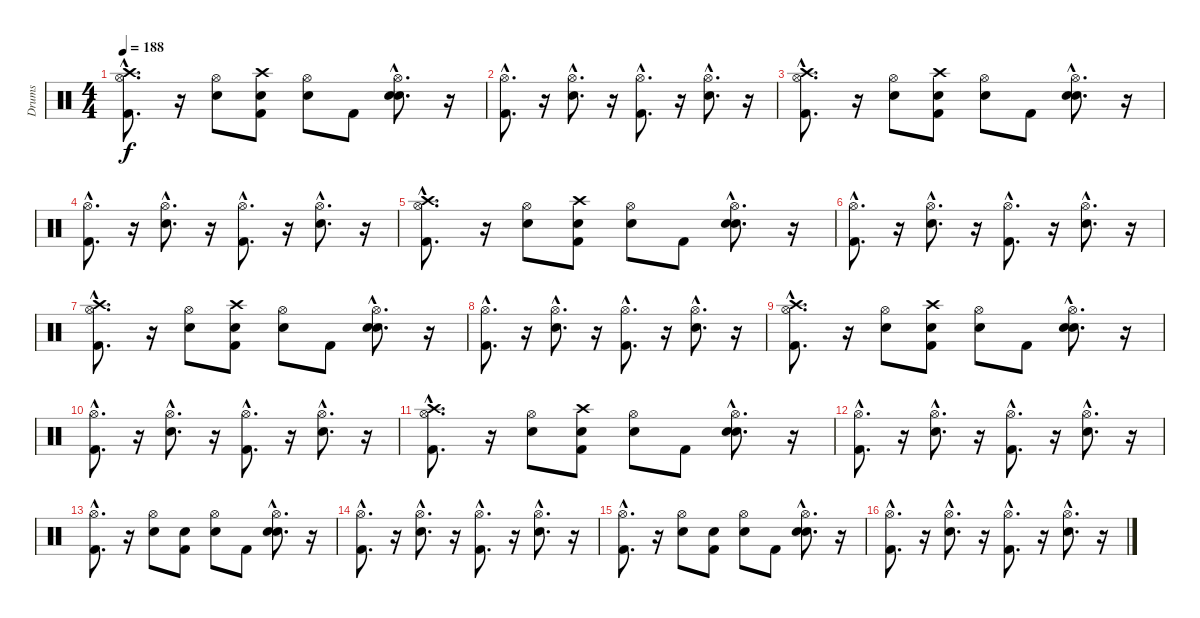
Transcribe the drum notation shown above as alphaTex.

\track ("Drums" "Drums") {instrument percussion}
\staff {score}
\articulation defaults
\ts (4 4)
\tempo 188
\clef neutral
\ks c
("Kick (hit) 2"{hac} "Hi-Hat (open)"{hac} "Crash high (hit)"{hac}).8{d dy f} r.16 ("Snare (hit) 2" "Hi-Hat (open)").8 ("Snare (hit)" "Kick (hit) 2" "Crash high (hit)").8 ("Snare (hit)" "Hi-Hat (open)").8 "Kick (hit) 2".8 ("Snare (hit)"{hac} "Snare (hit) 2"{hac} "Hi-Hat (open)"{hac}).8{d} r.16 |
("Kick (hit) 2"{hac} "Hi-Hat (open)"{hac}).8{d} r.16 ("Snare (hit) 2"{hac} "Hi-Hat (open)"{hac}).8{d} r.16 ("Kick (hit) 2"{hac} "Hi-Hat (open)"{hac}).8{d} r.16 ("Snare (hit) 2"{hac} "Hi-Hat (open)"{hac}).8{d} r.16 |
("Kick (hit) 2"{hac} "Hi-Hat (open)"{hac} "Crash high (hit)"{hac}).8{d} r.16 ("Snare (hit) 2" "Hi-Hat (open)").8 ("Snare (hit)" "Kick (hit) 2" "Crash high (hit)").8 ("Snare (hit)" "Hi-Hat (open)").8 "Kick (hit) 2".8 ("Snare (hit)"{hac} "Snare (hit) 2"{hac} "Hi-Hat (open)"{hac}).8{d} r.16 |
("Kick (hit) 2"{hac} "Hi-Hat (open)"{hac}).8{d} r.16 ("Snare (hit) 2"{hac} "Hi-Hat (open)"{hac}).8{d} r.16 ("Kick (hit) 2"{hac} "Hi-Hat (open)"{hac}).8{d} r.16 ("Snare (hit) 2"{hac} "Hi-Hat (open)"{hac}).8{d} r.16 |
("Kick (hit) 2"{hac} "Hi-Hat (open)"{hac} "Crash high (hit)"{hac}).8{d} r.16 ("Snare (hit) 2" "Hi-Hat (open)").8 ("Snare (hit)" "Kick (hit) 2" "Crash high (hit)").8 ("Snare (hit)" "Hi-Hat (open)").8 "Kick (hit) 2".8 ("Snare (hit)"{hac} "Snare (hit) 2"{hac} "Hi-Hat (open)"{hac}).8{d} r.16 |
("Kick (hit) 2"{hac} "Hi-Hat (open)"{hac}).8{d} r.16 ("Snare (hit) 2"{hac} "Hi-Hat (open)"{hac}).8{d} r.16 ("Kick (hit) 2"{hac} "Hi-Hat (open)"{hac}).8{d} r.16 ("Snare (hit) 2"{hac} "Hi-Hat (open)"{hac}).8{d} r.16 |
("Kick (hit) 2"{hac} "Hi-Hat (open)"{hac} "Crash high (hit)"{hac}).8{d} r.16 ("Snare (hit) 2" "Hi-Hat (open)").8 ("Snare (hit)" "Kick (hit) 2" "Crash high (hit)").8 ("Snare (hit)" "Hi-Hat (open)").8 "Kick (hit) 2".8 ("Snare (hit)"{hac} "Snare (hit) 2"{hac} "Hi-Hat (open)"{hac}).8{d} r.16 |
("Kick (hit) 2"{hac} "Hi-Hat (open)"{hac}).8{d} r.16 ("Snare (hit) 2"{hac} "Hi-Hat (open)"{hac}).8{d} r.16 ("Kick (hit) 2"{hac} "Hi-Hat (open)"{hac}).8{d} r.16 ("Snare (hit) 2"{hac} "Hi-Hat (open)"{hac}).8{d} r.16 |
("Kick (hit) 2"{hac} "Hi-Hat (open)"{hac} "Crash high (hit)"{hac}).8{d} r.16 ("Snare (hit) 2" "Hi-Hat (open)").8 ("Snare (hit)" "Kick (hit) 2" "Crash high (hit)").8 ("Snare (hit)" "Hi-Hat (open)").8 "Kick (hit) 2".8 ("Snare (hit)"{hac} "Snare (hit) 2"{hac} "Hi-Hat (open)"{hac}).8{d} r.16 |
("Kick (hit) 2"{hac} "Hi-Hat (open)"{hac}).8{d} r.16 ("Snare (hit) 2"{hac} "Hi-Hat (open)"{hac}).8{d} r.16 ("Kick (hit) 2"{hac} "Hi-Hat (open)"{hac}).8{d} r.16 ("Snare (hit) 2"{hac} "Hi-Hat (open)"{hac}).8{d} r.16 |
("Kick (hit) 2"{hac} "Hi-Hat (open)"{hac} "Crash high (hit)"{hac}).8{d} r.16 ("Snare (hit) 2" "Hi-Hat (open)").8 ("Snare (hit)" "Kick (hit) 2" "Crash high (hit)").8 ("Snare (hit)" "Hi-Hat (open)").8 "Kick (hit) 2".8 ("Snare (hit)"{hac} "Snare (hit) 2"{hac} "Hi-Hat (open)"{hac}).8{d} r.16 |
("Kick (hit) 2"{hac} "Hi-Hat (open)"{hac}).8{d} r.16 ("Snare (hit) 2"{hac} "Hi-Hat (open)"{hac}).8{d} r.16 ("Kick (hit) 2"{hac} "Hi-Hat (open)"{hac}).8{d} r.16 ("Snare (hit) 2"{hac} "Hi-Hat (open)"{hac}).8{d} r.16 |
("Kick (hit) 2"{hac} "Hi-Hat (open)"{hac}).8{d} r.16 ("Snare (hit) 2" "Hi-Hat (open)").8 ("Snare (hit)" "Kick (hit) 2").8 ("Snare (hit)" "Hi-Hat (open)").8 "Kick (hit) 2".8 ("Snare (hit)"{hac} "Snare (hit) 2"{hac} "Hi-Hat (open)"{hac}).8{d} r.16 |
("Kick (hit) 2"{hac} "Hi-Hat (open)"{hac}).8{d} r.16 ("Snare (hit) 2"{hac} "Hi-Hat (open)"{hac}).8{d} r.16 ("Kick (hit) 2"{hac} "Hi-Hat (open)"{hac}).8{d} r.16 ("Snare (hit) 2"{hac} "Hi-Hat (open)"{hac}).8{d} r.16 |
("Kick (hit) 2"{hac} "Hi-Hat (open)"{hac}).8{d} r.16 ("Snare (hit) 2" "Hi-Hat (open)").8 ("Snare (hit)" "Kick (hit) 2").8 ("Snare (hit)" "Hi-Hat (open)").8 "Kick (hit) 2".8 ("Snare (hit)"{hac} "Snare (hit) 2"{hac} "Hi-Hat (open)"{hac}).8{d} r.16 |
("Kick (hit) 2"{hac} "Hi-Hat (open)"{hac}).8{d} r.16 ("Snare (hit) 2"{hac} "Hi-Hat (open)"{hac}).8{d} r.16 ("Kick (hit) 2"{hac} "Hi-Hat (open)"{hac}).8{d} r.16 ("Snare (hit) 2"{hac} "Hi-Hat (open)"{hac}).8{d} r.16
